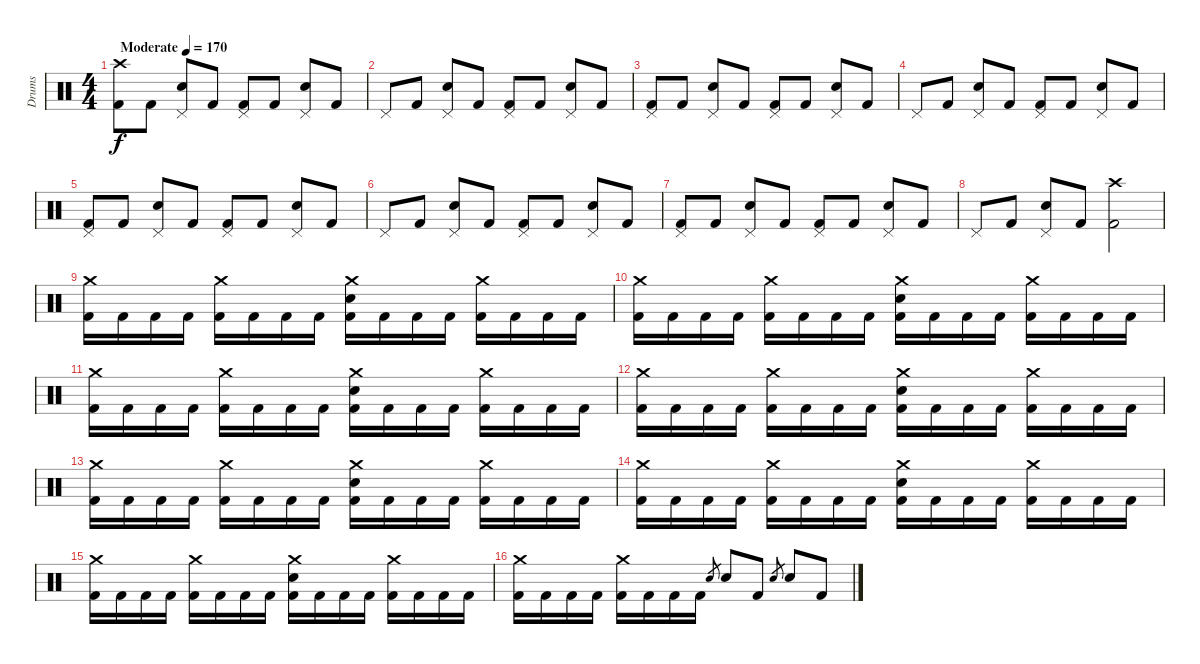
\track ("Drums" "Drums") {instrument percussion}
\staff {score}
\articulation defaults
\ts (4 4)
\tempo (170 "Moderate")
\clef neutral
\ks c
("Crash high (hit)" "Kick (hit) 2").8{dy f} "Kick (hit) 2".8 ("Pedal Hi-Hat (hit)" "Electric Snare (hit)").8 "Kick (hit) 2".8 ("Pedal Hi-Hat (hit)" "Kick (hit) 2").8 "Kick (hit) 2".8 ("Pedal Hi-Hat (hit)" "Electric Snare (hit)").8 "Kick (hit) 2".8 |
"Pedal Hi-Hat (hit)".8 "Kick (hit) 2".8 ("Pedal Hi-Hat (hit)" "Electric Snare (hit)").8 "Kick (hit) 2".8 ("Pedal Hi-Hat (hit)" "Kick (hit) 2").8 "Kick (hit) 2".8 ("Pedal Hi-Hat (hit)" "Electric Snare (hit)").8 "Kick (hit) 2".8 |
("Pedal Hi-Hat (hit)" "Kick (hit) 2").8 "Kick (hit) 2".8 ("Pedal Hi-Hat (hit)" "Electric Snare (hit)").8 "Kick (hit) 2".8 ("Pedal Hi-Hat (hit)" "Kick (hit) 2").8 "Kick (hit) 2".8 ("Pedal Hi-Hat (hit)" "Electric Snare (hit)").8 "Kick (hit) 2".8 |
"Pedal Hi-Hat (hit)".8 "Kick (hit) 2".8 ("Pedal Hi-Hat (hit)" "Electric Snare (hit)").8 "Kick (hit) 2".8 ("Pedal Hi-Hat (hit)" "Kick (hit) 2").8 "Kick (hit) 2".8 ("Pedal Hi-Hat (hit)" "Electric Snare (hit)").8 "Kick (hit) 2".8 |
("Pedal Hi-Hat (hit)" "Kick (hit) 2").8 "Kick (hit) 2".8 ("Pedal Hi-Hat (hit)" "Electric Snare (hit)").8 "Kick (hit) 2".8 ("Pedal Hi-Hat (hit)" "Kick (hit) 2").8 "Kick (hit) 2".8 ("Pedal Hi-Hat (hit)" "Electric Snare (hit)").8 "Kick (hit) 2".8 |
"Pedal Hi-Hat (hit)".8 "Kick (hit) 2".8 ("Pedal Hi-Hat (hit)" "Electric Snare (hit)").8 "Kick (hit) 2".8 ("Pedal Hi-Hat (hit)" "Kick (hit) 2").8 "Kick (hit) 2".8 ("Pedal Hi-Hat (hit)" "Electric Snare (hit)").8 "Kick (hit) 2".8 |
("Pedal Hi-Hat (hit)" "Kick (hit) 2").8 "Kick (hit) 2".8 ("Pedal Hi-Hat (hit)" "Electric Snare (hit)").8 "Kick (hit) 2".8 ("Pedal Hi-Hat (hit)" "Kick (hit) 2").8 "Kick (hit) 2".8 ("Pedal Hi-Hat (hit)" "Electric Snare (hit)").8 "Kick (hit) 2".8 |
"Pedal Hi-Hat (hit)".8 "Kick (hit) 2".8 ("Pedal Hi-Hat (hit)" "Electric Snare (hit)").8 "Kick (hit) 2".8 ("Crash high (hit)" "Kick (hit) 2").2 |
("Crash medium (hit)" "Kick (hit) 2").16 "Kick (hit) 2".16 "Kick (hit) 2".16 "Kick (hit) 2".16 ("Crash medium (hit)" "Kick (hit) 2").16 "Kick (hit) 2".16 "Kick (hit) 2".16 "Kick (hit) 2".16 ("Crash medium (hit)" "Electric Snare (hit)" "Kick (hit) 2").16 "Kick (hit) 2".16 "Kick (hit) 2".16 "Kick (hit) 2".16 ("Crash medium (hit)" "Kick (hit) 2").16 "Kick (hit) 2".16 "Kick (hit) 2".16 "Kick (hit) 2".16 |
("Crash medium (hit)" "Kick (hit) 2").16 "Kick (hit) 2".16 "Kick (hit) 2".16 "Kick (hit) 2".16 ("Crash medium (hit)" "Kick (hit) 2").16 "Kick (hit) 2".16 "Kick (hit) 2".16 "Kick (hit) 2".16 ("Crash medium (hit)" "Electric Snare (hit)" "Kick (hit) 2").16 "Kick (hit) 2".16 "Kick (hit) 2".16 "Kick (hit) 2".16 ("Crash medium (hit)" "Kick (hit) 2").16 "Kick (hit) 2".16 "Kick (hit) 2".16 "Kick (hit) 2".16 |
("Crash medium (hit)" "Kick (hit) 2").16 "Kick (hit) 2".16 "Kick (hit) 2".16 "Kick (hit) 2".16 ("Crash medium (hit)" "Kick (hit) 2").16 "Kick (hit) 2".16 "Kick (hit) 2".16 "Kick (hit) 2".16 ("Crash medium (hit)" "Electric Snare (hit)" "Kick (hit) 2").16 "Kick (hit) 2".16 "Kick (hit) 2".16 "Kick (hit) 2".16 ("Crash medium (hit)" "Kick (hit) 2").16 "Kick (hit) 2".16 "Kick (hit) 2".16 "Kick (hit) 2".16 |
("Crash medium (hit)" "Kick (hit) 2").16 "Kick (hit) 2".16 "Kick (hit) 2".16 "Kick (hit) 2".16 ("Crash medium (hit)" "Kick (hit) 2").16 "Kick (hit) 2".16 "Kick (hit) 2".16 "Kick (hit) 2".16 ("Crash medium (hit)" "Electric Snare (hit)" "Kick (hit) 2").16 "Kick (hit) 2".16 "Kick (hit) 2".16 "Kick (hit) 2".16 ("Crash medium (hit)" "Kick (hit) 2").16 "Kick (hit) 2".16 "Kick (hit) 2".16 "Kick (hit) 2".16 |
("Crash medium (hit)" "Kick (hit) 2").16 "Kick (hit) 2".16 "Kick (hit) 2".16 "Kick (hit) 2".16 ("Crash medium (hit)" "Kick (hit) 2").16 "Kick (hit) 2".16 "Kick (hit) 2".16 "Kick (hit) 2".16 ("Crash medium (hit)" "Electric Snare (hit)" "Kick (hit) 2").16 "Kick (hit) 2".16 "Kick (hit) 2".16 "Kick (hit) 2".16 ("Crash medium (hit)" "Kick (hit) 2").16 "Kick (hit) 2".16 "Kick (hit) 2".16 "Kick (hit) 2".16 |
("Crash medium (hit)" "Kick (hit) 2").16 "Kick (hit) 2".16 "Kick (hit) 2".16 "Kick (hit) 2".16 ("Crash medium (hit)" "Kick (hit) 2").16 "Kick (hit) 2".16 "Kick (hit) 2".16 "Kick (hit) 2".16 ("Crash medium (hit)" "Electric Snare (hit)" "Kick (hit) 2").16 "Kick (hit) 2".16 "Kick (hit) 2".16 "Kick (hit) 2".16 ("Crash medium (hit)" "Kick (hit) 2").16 "Kick (hit) 2".16 "Kick (hit) 2".16 "Kick (hit) 2".16 |
("Crash medium (hit)" "Kick (hit) 2").16 "Kick (hit) 2".16 "Kick (hit) 2".16 "Kick (hit) 2".16 ("Crash medium (hit)" "Kick (hit) 2").16 "Kick (hit) 2".16 "Kick (hit) 2".16 "Kick (hit) 2".16 ("Crash medium (hit)" "Electric Snare (hit)" "Kick (hit) 2").16 "Kick (hit) 2".16 "Kick (hit) 2".16 "Kick (hit) 2".16 ("Crash medium (hit)" "Kick (hit) 2").16 "Kick (hit) 2".16 "Kick (hit) 2".16 "Kick (hit) 2".16 |
("Crash medium (hit)" "Kick (hit) 2").16 "Kick (hit) 2".16 "Kick (hit) 2".16 "Kick (hit) 2".16 ("Crash medium (hit)" "Kick (hit) 2").16 "Kick (hit) 2".16 "Kick (hit) 2".16 "Kick (hit) 2".16 "Electric Snare (hit)".8{gr} "Electric Snare (hit)".8 "Kick (hit) 2".8 "Electric Snare (hit)".8{gr} "Electric Snare (hit)".8 "Kick (hit) 2".8
